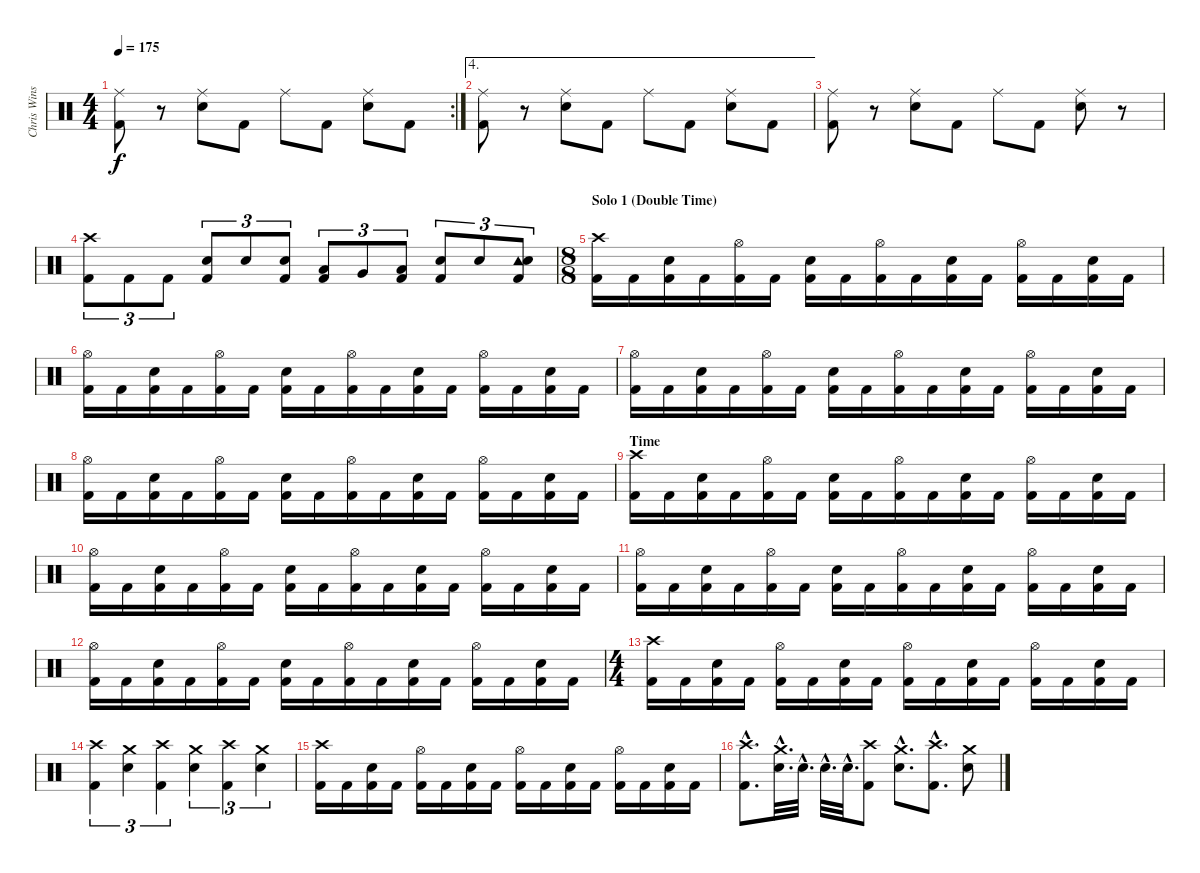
\track ("Chris Winship (Drums)" "Chris Wins") {instrument percussion}
\staff {score}
\articulation defaults
\rc 2
\ts (4 4)
\tempo 175
\clef neutral
\ks c
("Ride (middle)" "Kick (hit) 2").8{dy f} r.8 ("Ride (middle)" "Snare (hit) 2").8 "Kick (hit) 2".8 "Ride (middle)".8 "Kick (hit) 2".8 ("Ride (middle)" "Snare (hit) 2").8 "Kick (hit) 2".8 |
\ae 4
("Ride (middle)" "Kick (hit) 2").8 r.8 ("Ride (middle)" "Snare (hit) 2").8 "Kick (hit) 2".8 "Ride (middle)".8 "Kick (hit) 2".8 ("Ride (middle)" "Snare (hit) 2").8 "Kick (hit) 2".8 |
("Ride (middle)" "Kick (hit) 2").8 r.8 ("Ride (middle)" "Snare (hit) 2").8 "Kick (hit) 2".8 "Ride (middle)".8 "Kick (hit) 2".8 ("Ride (middle)" "Snare (hit) 2").8 r.8 |
("Crash high (hit)" "Kick (hit) 2").8{tu (3 2)} "Kick (hit) 2".8{tu (3 2)} "Kick (hit) 2".8{tu (3 2)} ("Kick (hit) 2" "Snare (hit) 2").8{tu (3 2)} "Snare (hit) 2".8{tu (3 2)} ("Kick (hit) 2" "Snare (hit) 2").8{tu (3 2)} ("Low Tom (hit)" "Kick (hit) 2").8{tu (3 2)} "Very Low Tom (hit)".8{tu (3 2)} ("Low Floor Tom (hit)" "Kick (hit) 2").8{tu (3 2)} ("Snare (hit) 2" "Kick (hit) 2").8{tu (3 2)} "Snare (hit) 2".8{tu (3 2)} ("Tambourine (hit)" "Snare (hit) 2" "Kick (hit) 2").8{tu (3 2)} |
\ts (8 8)
\section ("" "Solo 1 (Double Time)")
("Crash high (hit)" "Kick (hit) 2").16 "Kick (hit) 2".16 ("Snare (hit) 2" "Kick (hit) 2").16 "Kick (hit) 2".16 ("Hi-Hat (open)" "Kick (hit) 2").16 "Kick (hit) 2".16 ("Snare (hit) 2" "Kick (hit) 2").16 "Kick (hit) 2".16 ("Hi-Hat (open)" "Kick (hit) 2").16 "Kick (hit) 2".16 ("Snare (hit) 2" "Kick (hit) 2").16 "Kick (hit) 2".16 ("Hi-Hat (open)" "Kick (hit) 2").16 "Kick (hit) 2".16 ("Snare (hit) 2" "Kick (hit) 2").16 "Kick (hit) 2".16 |
("Hi-Hat (open)" "Kick (hit) 2").16 "Kick (hit) 2".16 ("Snare (hit) 2" "Kick (hit) 2").16 "Kick (hit) 2".16 ("Hi-Hat (open)" "Kick (hit) 2").16 "Kick (hit) 2".16 ("Snare (hit) 2" "Kick (hit) 2").16 "Kick (hit) 2".16 ("Hi-Hat (open)" "Kick (hit) 2").16 "Kick (hit) 2".16 ("Snare (hit) 2" "Kick (hit) 2").16 "Kick (hit) 2".16 ("Hi-Hat (open)" "Kick (hit) 2").16 "Kick (hit) 2".16 ("Snare (hit) 2" "Kick (hit) 2").16 "Kick (hit) 2".16 |
("Hi-Hat (open)" "Kick (hit) 2").16 "Kick (hit) 2".16 ("Snare (hit) 2" "Kick (hit) 2").16 "Kick (hit) 2".16 ("Hi-Hat (open)" "Kick (hit) 2").16 "Kick (hit) 2".16 ("Snare (hit) 2" "Kick (hit) 2").16 "Kick (hit) 2".16 ("Hi-Hat (open)" "Kick (hit) 2").16 "Kick (hit) 2".16 ("Snare (hit) 2" "Kick (hit) 2").16 "Kick (hit) 2".16 ("Hi-Hat (open)" "Kick (hit) 2").16 "Kick (hit) 2".16 ("Snare (hit) 2" "Kick (hit) 2").16 "Kick (hit) 2".16 |
("Hi-Hat (open)" "Kick (hit) 2").16 "Kick (hit) 2".16 ("Snare (hit) 2" "Kick (hit) 2").16 "Kick (hit) 2".16 ("Hi-Hat (open)" "Kick (hit) 2").16 "Kick (hit) 2".16 ("Snare (hit) 2" "Kick (hit) 2").16 "Kick (hit) 2".16 ("Hi-Hat (open)" "Kick (hit) 2").16 "Kick (hit) 2".16 ("Snare (hit) 2" "Kick (hit) 2").16 "Kick (hit) 2".16 ("Hi-Hat (open)" "Kick (hit) 2").16 "Kick (hit) 2".16 ("Snare (hit) 2" "Kick (hit) 2").16 "Kick (hit) 2".16 |
\section ("" "Time")
("Crash high (hit)" "Kick (hit) 2").16 "Kick (hit) 2".16 ("Snare (hit) 2" "Kick (hit) 2").16 "Kick (hit) 2".16 ("Hi-Hat (open)" "Kick (hit) 2").16 "Kick (hit) 2".16 ("Snare (hit) 2" "Kick (hit) 2").16 "Kick (hit) 2".16 ("Hi-Hat (open)" "Kick (hit) 2").16 "Kick (hit) 2".16 ("Snare (hit) 2" "Kick (hit) 2").16 "Kick (hit) 2".16 ("Hi-Hat (open)" "Kick (hit) 2").16 "Kick (hit) 2".16 ("Snare (hit) 2" "Kick (hit) 2").16 "Kick (hit) 2".16 |
("Hi-Hat (open)" "Kick (hit) 2").16 "Kick (hit) 2".16 ("Snare (hit) 2" "Kick (hit) 2").16 "Kick (hit) 2".16 ("Hi-Hat (open)" "Kick (hit) 2").16 "Kick (hit) 2".16 ("Snare (hit) 2" "Kick (hit) 2").16 "Kick (hit) 2".16 ("Hi-Hat (open)" "Kick (hit) 2").16 "Kick (hit) 2".16 ("Snare (hit) 2" "Kick (hit) 2").16 "Kick (hit) 2".16 ("Hi-Hat (open)" "Kick (hit) 2").16 "Kick (hit) 2".16 ("Snare (hit) 2" "Kick (hit) 2").16 "Kick (hit) 2".16 |
("Hi-Hat (open)" "Kick (hit) 2").16 "Kick (hit) 2".16 ("Snare (hit) 2" "Kick (hit) 2").16 "Kick (hit) 2".16 ("Hi-Hat (open)" "Kick (hit) 2").16 "Kick (hit) 2".16 ("Snare (hit) 2" "Kick (hit) 2").16 "Kick (hit) 2".16 ("Hi-Hat (open)" "Kick (hit) 2").16 "Kick (hit) 2".16 ("Snare (hit) 2" "Kick (hit) 2").16 "Kick (hit) 2".16 ("Hi-Hat (open)" "Kick (hit) 2").16 "Kick (hit) 2".16 ("Snare (hit) 2" "Kick (hit) 2").16 "Kick (hit) 2".16 |
("Hi-Hat (open)" "Kick (hit) 2").16 "Kick (hit) 2".16 ("Snare (hit) 2" "Kick (hit) 2").16 "Kick (hit) 2".16 ("Hi-Hat (open)" "Kick (hit) 2").16 "Kick (hit) 2".16 ("Snare (hit) 2" "Kick (hit) 2").16 "Kick (hit) 2".16 ("Hi-Hat (open)" "Kick (hit) 2").16 "Kick (hit) 2".16 ("Snare (hit) 2" "Kick (hit) 2").16 "Kick (hit) 2".16 ("Hi-Hat (open)" "Kick (hit) 2").16 "Kick (hit) 2".16 ("Snare (hit) 2" "Kick (hit) 2").16 "Kick (hit) 2".16 |
\ts (4 4)
("Crash high (hit)" "Kick (hit) 2").16 "Kick (hit) 2".16 ("Snare (hit) 2" "Kick (hit) 2").16 "Kick (hit) 2".16 ("Hi-Hat (open)" "Kick (hit) 2").16 "Kick (hit) 2".16 ("Snare (hit) 2" "Kick (hit) 2").16 "Kick (hit) 2".16 ("Hi-Hat (open)" "Kick (hit) 2").16 "Kick (hit) 2".16 ("Snare (hit) 2" "Kick (hit) 2").16 "Kick (hit) 2".16 ("Hi-Hat (open)" "Kick (hit) 2").16 "Kick (hit) 2".16 ("Snare (hit) 2" "Kick (hit) 2").16 "Kick (hit) 2".16 |
("Crash high (hit)" "Kick (hit) 2").4{tu (3 2)} ("Crash medium (hit)" "Snare (hit) 2").4{tu (3 2)} ("Crash high (hit)" "Kick (hit) 2").4{tu (3 2)} ("Crash medium (hit)" "Snare (hit) 2").4{tu (3 2)} ("Crash high (hit)" "Kick (hit) 2").4{tu (3 2)} ("Crash medium (hit)" "Snare (hit) 2").4{tu (3 2)} |
("Crash high (hit)" "Kick (hit) 2").16 "Kick (hit) 2".16 ("Snare (hit) 2" "Kick (hit) 2").16 "Kick (hit) 2".16 ("Hi-Hat (open)" "Kick (hit) 2").16 "Kick (hit) 2".16 ("Snare (hit) 2" "Kick (hit) 2").16 "Kick (hit) 2".16 ("Hi-Hat (open)" "Kick (hit) 2").16 "Kick (hit) 2".16 ("Snare (hit) 2" "Kick (hit) 2").16 "Kick (hit) 2".16 ("Hi-Hat (open)" "Kick (hit) 2").16 "Kick (hit) 2".16 ("Snare (hit) 2" "Kick (hit) 2").16 "Kick (hit) 2".16 |
("Crash high (hit)"{hac} "Kick (hit) 2"{hac}).8{d} ("Crash medium (hit)"{hac} "Snare (hit) 2"{hac}).32{d} "Snare (hit) 2"{hac}.32{d} "Snare (hit) 2"{hac}.32{d} "Snare (hit) 2"{hac}.32{d} ("Crash high (hit)" "Kick (hit) 2").8 ("Crash medium (hit)"{hac} "Snare (hit) 2"{hac}).8{d} ("Crash high (hit)"{hac} "Kick (hit) 2"{hac}).8{d} ("Crash medium (hit)" "Snare (hit) 2").8
